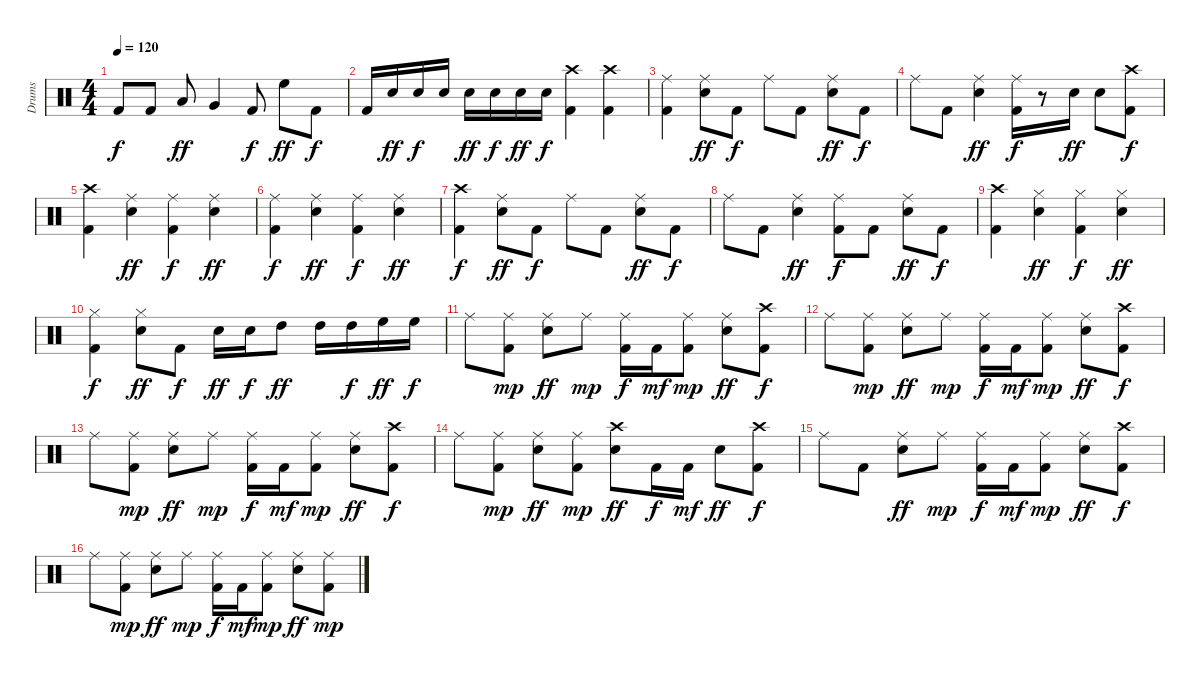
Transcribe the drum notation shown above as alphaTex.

\track ("Drums" "Drums") {instrument percussion}
\staff {score}
\articulation defaults
\ts (4 4)
\tempo 120
\clef neutral
\ks c "Kick (hit) 2".8{dy f} "Kick (hit) 2".8 "Low Floor Tom (hit)".8{dy ff} "Very Low Tom (hit)".4 "Kick (hit) 2".8{dy f} "High Floor Tom (hit)".8{dy ff} "Kick (hit) 2".8{dy f}
|
"Kick (hit) 2".16 "Snare (hit) 2".16{dy ff} "Snare (hit) 2".16{dy f} "Snare (hit) 2".16 "Snare (hit) 2".16{dy ff} "Snare (hit) 2".16{dy f} "Snare (hit) 2".16{dy ff} "Snare (hit) 2".16{dy f} ("Crash high (hit)" "Kick (hit) 2").4 ("Crash high (hit)" "Kick (hit) 2").4 |
("Ride (middle)" "Kick (hit) 2").4 ("Snare (hit) 2" "Ride (middle)").8{dy ff} "Kick (hit) 2".8{dy f} "Ride (middle)".8 "Kick (hit) 2".8 ("Snare (hit) 2" "Ride (middle)").8{dy ff} "Kick (hit) 2".8{dy f} |
"Ride (middle)".8 "Kick (hit) 2".8 ("Snare (hit) 2" "Ride (middle)").4{dy ff} ("Ride (middle)" "Kick (hit) 2").16{dy f} r.8 "Snare (hit) 2".16{dy ff} "Snare (hit) 2".8 ("Crash high (hit)" "Kick (hit) 2").8{dy f} |
("Crash high (hit)" "Kick (hit) 2").4 ("Snare (hit) 2" "Ride (middle)").4{dy ff} ("Ride (middle)" "Kick (hit) 2").4{dy f} ("Snare (hit) 2" "Ride (middle)").4{dy ff} |
("Ride (middle)" "Kick (hit) 2").4{dy f} ("Ride (middle)" "Snare (hit) 2").4{dy ff} ("Ride (middle)" "Kick (hit) 2").4{dy f} ("Ride (middle)" "Snare (hit) 2").4{dy ff} |
("Crash high (hit)" "Kick (hit) 2").4{dy f} ("Snare (hit) 2" "Ride (middle)").8{dy ff} "Kick (hit) 2".8{dy f} "Ride (middle)".8 "Kick (hit) 2".8 ("Snare (hit) 2" "Ride (middle)").8{dy ff} "Kick (hit) 2".8{dy f} |
"Ride (middle)".8 "Kick (hit) 2".8 ("Snare (hit) 2" "Ride (middle)").4{dy ff} ("Ride (middle)" "Kick (hit) 2").8{dy f} "Kick (hit) 2".8 ("Snare (hit) 2" "Ride (middle)").8{dy ff} "Kick (hit) 2".8{dy f} |
("Crash high (hit)" "Kick (hit) 2").4 ("Snare (hit) 2" "Hi-Hat (closed)").4{dy ff} ("Hi-Hat (closed)" "Kick (hit) 2").4{dy f} ("Snare (hit) 2" "Hi-Hat (closed)").4{dy ff} |
("Hi-Hat (closed)" "Kick (hit) 2").4{dy f} ("Snare (hit) 2" "Hi-Hat (closed)").8{dy ff} "Kick (hit) 2".8{dy f} "Snare (hit) 2".16{dy ff} "Snare (hit) 2".16{dy f} "High Tom (hit)".8{dy ff} "High Tom (hit)".16 "High Tom (hit)".16{dy f} "High Floor Tom (hit)".16{dy ff} "High Floor Tom (hit)".16{dy f} |
"Ride (middle)".8 ("Ride (middle)" "Kick (hit) 2").8{dy mp} ("Snare (hit) 2" "Ride (middle)").8{dy ff} "Ride (middle)".8{dy mp} ("Ride (middle)" "Kick (hit) 2").16{dy f} "Kick (hit) 2".16{dy mf} ("Ride (middle)" "Kick (hit) 2").8{dy mp} ("Snare (hit) 2" "Ride (middle)").8{dy ff} ("Crash high (hit)" "Kick (hit) 2").8{dy f} |
"Ride (middle)".8 ("Ride (middle)" "Kick (hit) 2").8{dy mp} ("Snare (hit) 2" "Ride (middle)").8{dy ff} "Ride (middle)".8{dy mp} ("Ride (middle)" "Kick (hit) 2").16{dy f} "Kick (hit) 2".16{dy mf} ("Ride (middle)" "Kick (hit) 2").8{dy mp} ("Snare (hit) 2" "Ride (middle)").8{dy ff} ("Crash high (hit)" "Kick (hit) 2").8{dy f} |
"Ride (middle)".8 ("Ride (middle)" "Kick (hit) 2").8{dy mp} ("Snare (hit) 2" "Ride (middle)").8{dy ff} "Ride (middle)".8{dy mp} ("Ride (middle)" "Kick (hit) 2").16{dy f} "Kick (hit) 2".16{dy mf} ("Ride (middle)" "Kick (hit) 2").8{dy mp} ("Snare (hit) 2" "Ride (middle)").8{dy ff} ("Crash high (hit)" "Kick (hit) 2").8{dy f} |
"Ride (middle)".8 ("Ride (middle)" "Kick (hit) 2").8{dy mp} ("Snare (hit) 2" "Ride (middle)").8{dy ff} ("Ride (middle)" "Kick (hit) 2").8{dy mp} ("Crash high (hit)" "Snare (hit) 2").8{dy ff} "Kick (hit) 2".16{dy f} "Kick (hit) 2".16{dy mf} "Snare (hit) 2".8{dy ff} ("Crash high (hit)" "Kick (hit) 2").8{dy f} |
"Ride (middle)".8 "Kick (hit) 2".8 ("Snare (hit) 2" "Ride (middle)").8{dy ff} "Ride (middle)".8{dy mp} ("Ride (middle)" "Kick (hit) 2").16{dy f} "Kick (hit) 2".16{dy mf} ("Ride (middle)" "Kick (hit) 2").8{dy mp} ("Snare (hit) 2" "Ride (middle)").8{dy ff} ("Crash high (hit)" "Kick (hit) 2").8{dy f} |
"Ride (middle)".8 ("Ride (middle)" "Kick (hit) 2").8{dy mp} ("Snare (hit) 2" "Ride (middle)").8{dy ff} "Ride (middle)".8{dy mp} ("Ride (middle)" "Kick (hit) 2").16{dy f} "Kick (hit) 2".16{dy mf} ("Ride (middle)" "Kick (hit) 2").8{dy mp} ("Snare (hit) 2" "Ride (middle)").8{dy ff} ("Ride (middle)" "Kick (hit) 2").8{dy mp}
